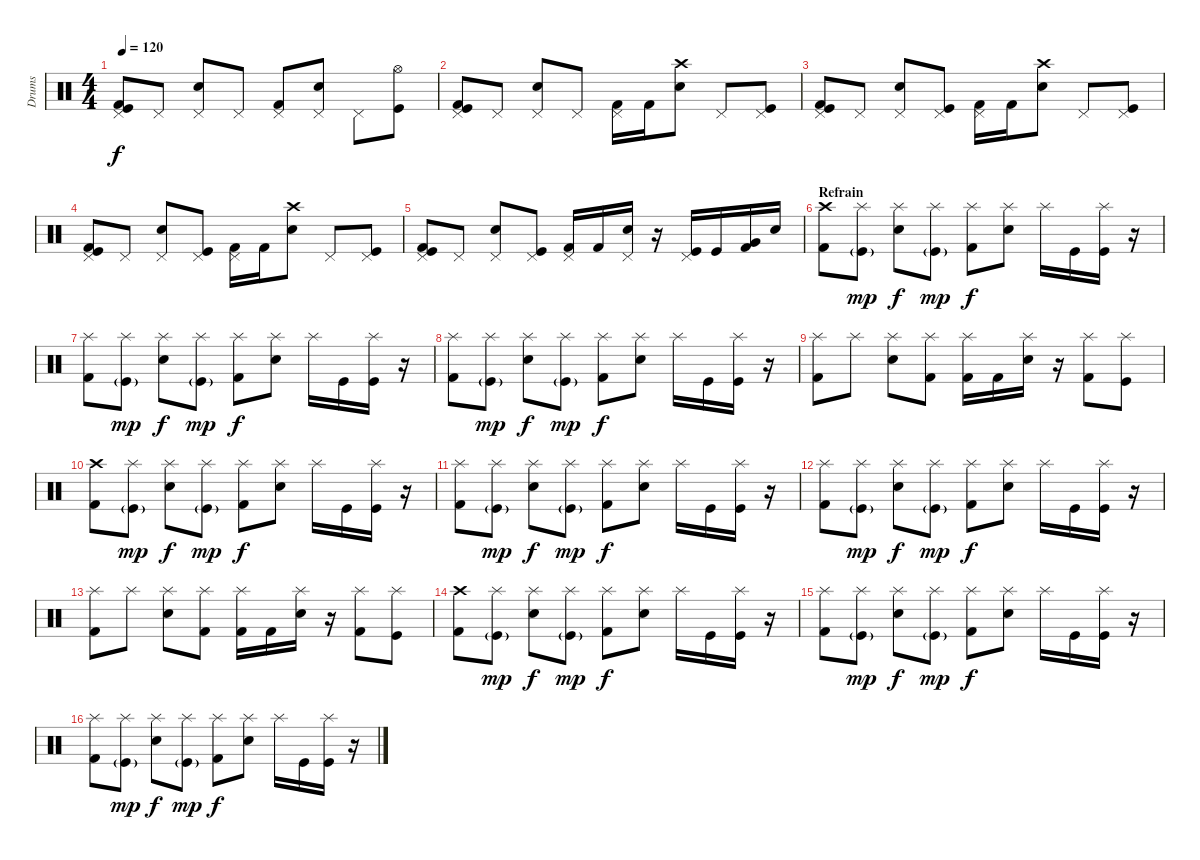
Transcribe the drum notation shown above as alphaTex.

\track ("Drums" "Drums") {instrument percussion}
\staff {score}
\articulation defaults
\ts (4 4)
\tempo 120
\clef neutral
\ks c
("Pedal Hi-Hat (hit)" "Kick (hit) 2" "Kick (hit)").8{dy f} "Pedal Hi-Hat (hit)".8 ("Pedal Hi-Hat (hit)" "Electric Snare (hit)").8 "Pedal Hi-Hat (hit)".8 ("Pedal Hi-Hat (hit)" "Kick (hit) 2").8 ("Pedal Hi-Hat (hit)" "Electric Snare (hit)").8 "Pedal Hi-Hat (hit)".8 ("Hi-Hat (open)" "Kick (hit)").8 |
("Pedal Hi-Hat (hit)" "Kick (hit) 2" "Kick (hit)").8 "Pedal Hi-Hat (hit)".8 ("Pedal Hi-Hat (hit)" "Electric Snare (hit)").8 "Pedal Hi-Hat (hit)".8 ("Pedal Hi-Hat (hit)" "Kick (hit) 2").16 "Kick (hit) 2".16 ("Crash high (hit)" "Electric Snare (hit)").8 "Pedal Hi-Hat (hit)".8 ("Pedal Hi-Hat (hit)" "Kick (hit)").8 |
("Pedal Hi-Hat (hit)" "Kick (hit) 2" "Kick (hit)").8 "Pedal Hi-Hat (hit)".8 ("Pedal Hi-Hat (hit)" "Electric Snare (hit)").8 ("Pedal Hi-Hat (hit)" "Kick (hit)").8 ("Pedal Hi-Hat (hit)" "Kick (hit) 2").16 "Kick (hit) 2".16 ("Crash high (hit)" "Electric Snare (hit)").8 "Pedal Hi-Hat (hit)".8 ("Pedal Hi-Hat (hit)" "Kick (hit)").8 |
("Pedal Hi-Hat (hit)" "Kick (hit) 2" "Kick (hit)").8 "Pedal Hi-Hat (hit)".8 ("Pedal Hi-Hat (hit)" "Electric Snare (hit)").8 ("Pedal Hi-Hat (hit)" "Kick (hit)").8 ("Pedal Hi-Hat (hit)" "Kick (hit) 2").16 "Kick (hit) 2".16 ("Crash high (hit)" "Electric Snare (hit)").8 "Pedal Hi-Hat (hit)".8 ("Pedal Hi-Hat (hit)" "Kick (hit)").8 |
("Pedal Hi-Hat (hit)" "Kick (hit) 2" "Kick (hit)").8 "Pedal Hi-Hat (hit)".8 ("Pedal Hi-Hat (hit)" "Electric Snare (hit)").8 ("Pedal Hi-Hat (hit)" "Kick (hit)").8 ("Pedal Hi-Hat (hit)" "Kick (hit) 2").16 "Kick (hit) 2".16 ("Pedal Hi-Hat (hit)" "Electric Snare (hit)").16 r.16 ("Pedal Hi-Hat (hit)" "Kick (hit)").16 "Kick (hit)".16 ("Kick (hit) 2" "Very Low Tom (hit)").16 "Electric Snare (hit)".16 |
\section ("" "Refrain")
("Crash high (hit)" "Kick (hit) 2").8 ("Splash (hit)" "Kick (hit)"{g}).8{dy mp} ("Splash (hit)" "Electric Snare (hit)").8{dy f} ("Splash (hit)" "Kick (hit)"{g}).8{dy mp} ("Splash (hit)" "Kick (hit) 2").8{dy f} ("Splash (hit)" "Electric Snare (hit)").8 "Splash (hit)".16 "Kick (hit)".16 ("Splash (hit)" "Kick (hit)").16 r.16 |
("Splash (hit)" "Kick (hit) 2").8 ("Splash (hit)" "Kick (hit)"{g}).8{dy mp} ("Splash (hit)" "Electric Snare (hit)").8{dy f} ("Splash (hit)" "Kick (hit)"{g}).8{dy mp} ("Splash (hit)" "Kick (hit) 2").8{dy f} ("Splash (hit)" "Electric Snare (hit)").8 "Splash (hit)".16 "Kick (hit)".16 ("Splash (hit)" "Kick (hit)").16 r.16 |
("Splash (hit)" "Kick (hit) 2").8 ("Splash (hit)" "Kick (hit)"{g}).8{dy mp} ("Splash (hit)" "Electric Snare (hit)").8{dy f} ("Splash (hit)" "Kick (hit)"{g}).8{dy mp} ("Splash (hit)" "Kick (hit) 2").8{dy f} ("Splash (hit)" "Electric Snare (hit)").8 "Splash (hit)".16 "Kick (hit)".16 ("Splash (hit)" "Kick (hit)").16 r.16 |
("Splash (hit)" "Kick (hit) 2").8 "Splash (hit)".8 ("Splash (hit)" "Electric Snare (hit)").8 ("Splash (hit)" "Kick (hit) 2").8 ("Splash (hit)" "Kick (hit) 2").16 "Kick (hit) 2".16 ("Splash (hit)" "Electric Snare (hit)").16 r.16 ("Splash (hit)" "Kick (hit) 2").8 ("Splash (hit)" "Kick (hit)").8 |
("Crash high (hit)" "Kick (hit) 2").8 ("Splash (hit)" "Kick (hit)"{g}).8{dy mp} ("Splash (hit)" "Electric Snare (hit)").8{dy f} ("Splash (hit)" "Kick (hit)"{g}).8{dy mp} ("Splash (hit)" "Kick (hit) 2").8{dy f} ("Splash (hit)" "Electric Snare (hit)").8 "Splash (hit)".16 "Kick (hit)".16 ("Splash (hit)" "Kick (hit)").16 r.16 |
("Splash (hit)" "Kick (hit) 2").8 ("Splash (hit)" "Kick (hit)"{g}).8{dy mp} ("Splash (hit)" "Electric Snare (hit)").8{dy f} ("Splash (hit)" "Kick (hit)"{g}).8{dy mp} ("Splash (hit)" "Kick (hit) 2").8{dy f} ("Splash (hit)" "Electric Snare (hit)").8 "Splash (hit)".16 "Kick (hit)".16 ("Splash (hit)" "Kick (hit)").16 r.16 |
("Splash (hit)" "Kick (hit) 2").8 ("Splash (hit)" "Kick (hit)"{g}).8{dy mp} ("Splash (hit)" "Electric Snare (hit)").8{dy f} ("Splash (hit)" "Kick (hit)"{g}).8{dy mp} ("Splash (hit)" "Kick (hit) 2").8{dy f} ("Splash (hit)" "Electric Snare (hit)").8 "Splash (hit)".16 "Kick (hit)".16 ("Splash (hit)" "Kick (hit)").16 r.16 |
("Splash (hit)" "Kick (hit) 2").8 "Splash (hit)".8 ("Splash (hit)" "Electric Snare (hit)").8 ("Splash (hit)" "Kick (hit) 2").8 ("Splash (hit)" "Kick (hit) 2").16 "Kick (hit) 2".16 ("Splash (hit)" "Electric Snare (hit)").16 r.16 ("Splash (hit)" "Kick (hit) 2").8 ("Splash (hit)" "Kick (hit)").8 |
("Crash high (hit)" "Kick (hit) 2").8 ("Splash (hit)" "Kick (hit)"{g}).8{dy mp} ("Splash (hit)" "Electric Snare (hit)").8{dy f} ("Splash (hit)" "Kick (hit)"{g}).8{dy mp} ("Splash (hit)" "Kick (hit) 2").8{dy f} ("Splash (hit)" "Electric Snare (hit)").8 "Splash (hit)".16 "Kick (hit)".16 ("Splash (hit)" "Kick (hit)").16 r.16 |
("Splash (hit)" "Kick (hit) 2").8 ("Splash (hit)" "Kick (hit)"{g}).8{dy mp} ("Splash (hit)" "Electric Snare (hit)").8{dy f} ("Splash (hit)" "Kick (hit)"{g}).8{dy mp} ("Splash (hit)" "Kick (hit) 2").8{dy f} ("Splash (hit)" "Electric Snare (hit)").8 "Splash (hit)".16 "Kick (hit)".16 ("Splash (hit)" "Kick (hit)").16 r.16 |
("Splash (hit)" "Kick (hit) 2").8 ("Splash (hit)" "Kick (hit)"{g}).8{dy mp} ("Splash (hit)" "Electric Snare (hit)").8{dy f} ("Splash (hit)" "Kick (hit)"{g}).8{dy mp} ("Splash (hit)" "Kick (hit) 2").8{dy f} ("Splash (hit)" "Electric Snare (hit)").8 "Splash (hit)".16 "Kick (hit)".16 ("Splash (hit)" "Kick (hit)").16 r.16
